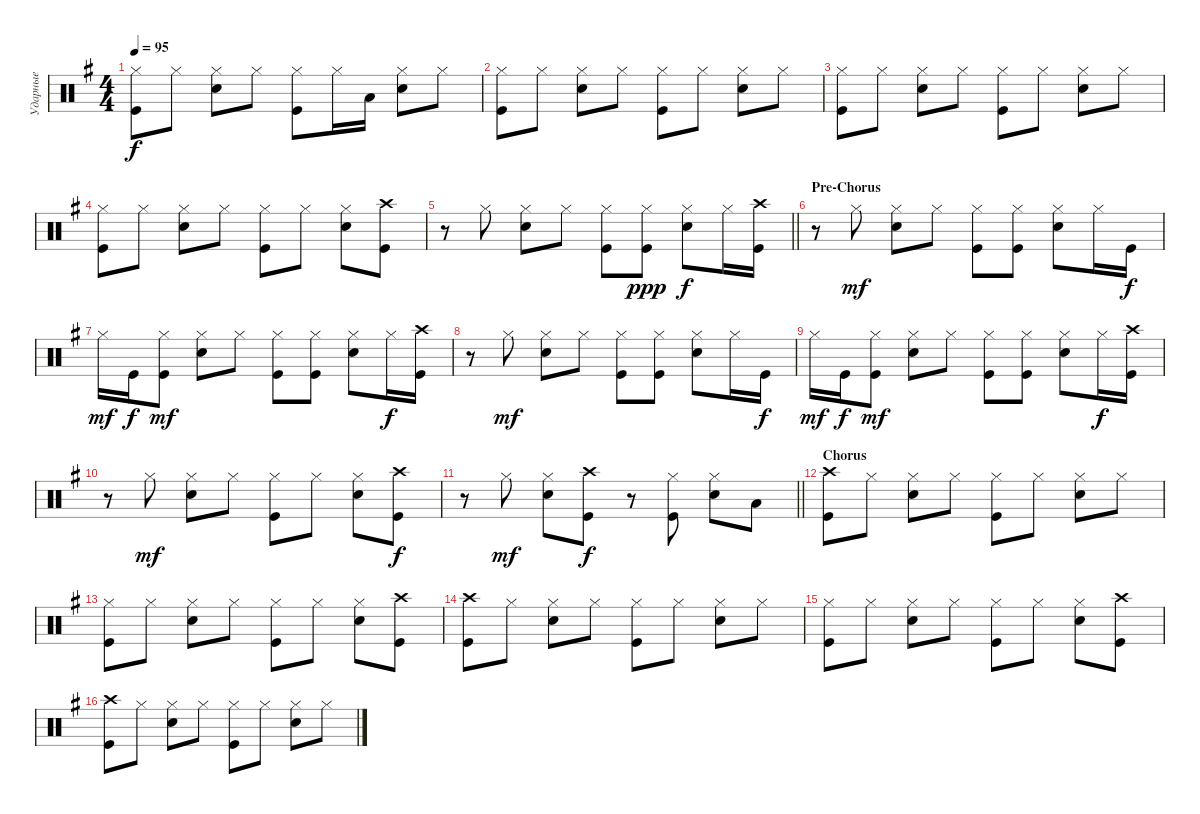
\track ("Ударные" "Ударные") {instrument percussion}
\staff {score}
\articulation defaults
\ts (4 4)
\tempo 95
\clef neutral
\ks eminor
("Kick (hit)" "Hi-Hat (closed)").8{dy f} "Hi-Hat (closed)".8 ("Snare (hit) 2" "Hi-Hat (closed)").8 "Hi-Hat (closed)".8 ("Kick (hit)" "Hi-Hat (closed)").8 "Hi-Hat (closed)".16 "Low Tom (hit)".16 ("Snare (hit) 2" "Hi-Hat (closed)").8 "Hi-Hat (closed)".8 |
("Kick (hit)" "Hi-Hat (closed)").8 "Hi-Hat (closed)".8 ("Snare (hit) 2" "Hi-Hat (closed)").8 "Hi-Hat (closed)".8 ("Kick (hit)" "Hi-Hat (closed)").8 "Hi-Hat (closed)".8 ("Snare (hit) 2" "Hi-Hat (closed)").8 "Hi-Hat (closed)".8 |
("Kick (hit)" "Hi-Hat (closed)").8 "Hi-Hat (closed)".8 ("Snare (hit) 2" "Hi-Hat (closed)").8 "Hi-Hat (closed)".8 ("Kick (hit)" "Hi-Hat (closed)").8 "Hi-Hat (closed)".8 ("Snare (hit) 2" "Hi-Hat (closed)").8 "Hi-Hat (closed)".8 |
("Kick (hit)" "Hi-Hat (closed)").8 "Hi-Hat (closed)".8 ("Snare (hit) 2" "Hi-Hat (closed)").8 "Hi-Hat (closed)".8 ("Kick (hit)" "Hi-Hat (closed)").8 "Hi-Hat (closed)".8 ("Snare (hit) 2" "Hi-Hat (closed)").8 ("Kick (hit)" "Crash high (hit)").8 |
\barLineRight lightlight
r.8 "Hi-Hat (closed)".8 ("Snare (hit) 2" "Hi-Hat (closed)").8 "Hi-Hat (closed)".8 ("Kick (hit)" "Hi-Hat (closed)").8 ("Hi-Hat (closed)" "Kick (hit)").8{dy ppp} ("Snare (hit) 2" "Hi-Hat (closed)").8{dy f} "Hi-Hat (closed)".16 ("Kick (hit)" "Crash high (hit)").16 |
\section ("" "Pre-Chorus")
r.8 "Hi-Hat (closed)".8{dy mf} ("Snare (hit) 2" "Hi-Hat (closed)").8 "Hi-Hat (closed)".8 ("Kick (hit)" "Hi-Hat (closed)").8 ("Hi-Hat (closed)" "Kick (hit)").8 ("Snare (hit) 2" "Hi-Hat (closed)").8 "Hi-Hat (closed)".16 "Kick (hit)".16{dy f} |
"Hi-Hat (closed)".16{dy mf} "Kick (hit)".16{dy f} ("Hi-Hat (closed)" "Kick (hit)").8{dy mf} ("Snare (hit) 2" "Hi-Hat (closed)").8 "Hi-Hat (closed)".8 ("Kick (hit)" "Hi-Hat (closed)").8 ("Hi-Hat (closed)" "Kick (hit)").8 ("Snare (hit) 2" "Hi-Hat (closed)").8 "Hi-Hat (closed)".16{dy f} ("Kick (hit)" "Crash high (hit)").16 |
r.8 "Hi-Hat (closed)".8{dy mf} ("Snare (hit) 2" "Hi-Hat (closed)").8 "Hi-Hat (closed)".8 ("Kick (hit)" "Hi-Hat (closed)").8 ("Hi-Hat (closed)" "Kick (hit)").8 ("Snare (hit) 2" "Hi-Hat (closed)").8 "Hi-Hat (closed)".16 "Kick (hit)".16{dy f} |
"Hi-Hat (closed)".16{dy mf} "Kick (hit)".16{dy f} ("Hi-Hat (closed)" "Kick (hit)").8{dy mf} ("Snare (hit) 2" "Hi-Hat (closed)").8 "Hi-Hat (closed)".8 ("Kick (hit)" "Hi-Hat (closed)").8 ("Hi-Hat (closed)" "Kick (hit)").8 ("Snare (hit) 2" "Hi-Hat (closed)").8 "Hi-Hat (closed)".16{dy f} ("Kick (hit)" "Crash high (hit)").16 |
r.8 "Hi-Hat (closed)".8{dy mf} ("Snare (hit) 2" "Hi-Hat (closed)").8 "Hi-Hat (closed)".8 ("Kick (hit)" "Hi-Hat (closed)").8 "Hi-Hat (closed)".8 ("Snare (hit) 2" "Hi-Hat (closed)").8 ("Kick (hit)" "Crash high (hit)").8{dy f} |
\barLineRight lightlight
r.8 "Hi-Hat (closed)".8{dy mf} ("Snare (hit) 2" "Hi-Hat (closed)").8 ("Kick (hit)" "Crash high (hit)").8{dy f} r.8 ("Kick (hit)" "Hi-Hat (closed)").8 ("Snare (hit) 2" "Hi-Hat (closed)").8 "Low Tom (hit)".8 |
\section ("" "Chorus")
("Kick (hit)" "Crash high (hit)").8 "Hi-Hat (closed)".8 ("Snare (hit) 2" "Hi-Hat (closed)").8 "Hi-Hat (closed)".8 ("Kick (hit)" "Hi-Hat (closed)").8 "Hi-Hat (closed)".8 ("Snare (hit) 2" "Hi-Hat (closed)").8 "Hi-Hat (closed)".8 |
("Kick (hit)" "Hi-Hat (closed)").8 "Hi-Hat (closed)".8 ("Snare (hit) 2" "Hi-Hat (closed)").8 "Hi-Hat (closed)".8 ("Kick (hit)" "Hi-Hat (closed)").8 "Hi-Hat (closed)".8 ("Snare (hit) 2" "Hi-Hat (closed)").8 ("Crash high (hit)" "Kick (hit)").8 |
("Kick (hit)" "Crash high (hit)").8 "Hi-Hat (closed)".8 ("Snare (hit) 2" "Hi-Hat (closed)").8 "Hi-Hat (closed)".8 ("Kick (hit)" "Hi-Hat (closed)").8 "Hi-Hat (closed)".8 ("Snare (hit) 2" "Hi-Hat (closed)").8 "Hi-Hat (closed)".8 |
("Kick (hit)" "Hi-Hat (closed)").8 "Hi-Hat (closed)".8 ("Snare (hit) 2" "Hi-Hat (closed)").8 "Hi-Hat (closed)".8 ("Kick (hit)" "Hi-Hat (closed)").8 "Hi-Hat (closed)".8 ("Snare (hit) 2" "Hi-Hat (closed)").8 ("Crash high (hit)" "Kick (hit)").8 |
("Kick (hit)" "Crash high (hit)").8 "Hi-Hat (closed)".8 ("Snare (hit) 2" "Hi-Hat (closed)").8 "Hi-Hat (closed)".8 ("Kick (hit)" "Hi-Hat (closed)").8 "Hi-Hat (closed)".8 ("Snare (hit) 2" "Hi-Hat (closed)").8 "Hi-Hat (closed)".8
